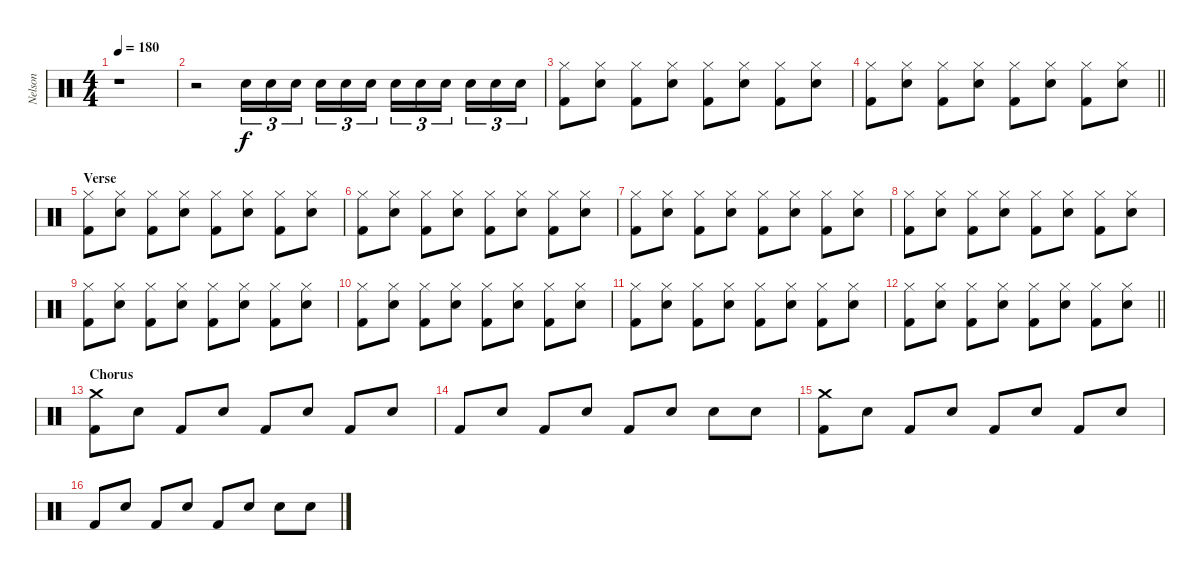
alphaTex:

\track ("Nelson" "Nelson") {instrument percussion}
\staff {score}
\articulation defaults
\ts (4 4)
\tempo 180
\clef neutral
\ks c
r.1{dy f} |
r.2 "Electric Snare (hit)".16{tu (3 2)} "Electric Snare (hit)".16{tu (3 2)} "Electric Snare (hit)".16{tu (3 2)} "Electric Snare (hit)".16{tu (3 2)} "Electric Snare (hit)".16{tu (3 2)} "Electric Snare (hit)".16{tu (3 2)} "Electric Snare (hit)".16{tu (3 2)} "Electric Snare (hit)".16{tu (3 2)} "Electric Snare (hit)".16{tu (3 2)} "Electric Snare (hit)".16{tu (3 2)} "Electric Snare (hit)".16{tu (3 2)} "Electric Snare (hit)".16{tu (3 2)} |
("Hi-Hat (closed)" "Kick (hit) 2").8 ("Electric Snare (hit)" "Hi-Hat (closed)").8 ("Hi-Hat (closed)" "Kick (hit) 2").8 ("Electric Snare (hit)" "Hi-Hat (closed)").8 ("Hi-Hat (closed)" "Kick (hit) 2").8 ("Electric Snare (hit)" "Hi-Hat (closed)").8 ("Hi-Hat (closed)" "Kick (hit) 2").8 ("Electric Snare (hit)" "Hi-Hat (closed)").8 |
\barLineRight lightlight
("Hi-Hat (closed)" "Kick (hit) 2").8 ("Electric Snare (hit)" "Hi-Hat (closed)").8 ("Hi-Hat (closed)" "Kick (hit) 2").8 ("Electric Snare (hit)" "Hi-Hat (closed)").8 ("Hi-Hat (closed)" "Kick (hit) 2").8 ("Electric Snare (hit)" "Hi-Hat (closed)").8 ("Hi-Hat (closed)" "Kick (hit) 2").8 ("Electric Snare (hit)" "Hi-Hat (closed)").8 |
\section ("" "Verse")
("Hi-Hat (closed)" "Kick (hit) 2").8 ("Electric Snare (hit)" "Hi-Hat (closed)").8 ("Hi-Hat (closed)" "Kick (hit) 2").8 ("Electric Snare (hit)" "Hi-Hat (closed)").8 ("Hi-Hat (closed)" "Kick (hit) 2").8 ("Electric Snare (hit)" "Hi-Hat (closed)").8 ("Hi-Hat (closed)" "Kick (hit) 2").8 ("Electric Snare (hit)" "Hi-Hat (closed)").8 |
("Hi-Hat (closed)" "Kick (hit) 2").8 ("Electric Snare (hit)" "Hi-Hat (closed)").8 ("Hi-Hat (closed)" "Kick (hit) 2").8 ("Electric Snare (hit)" "Hi-Hat (closed)").8 ("Hi-Hat (closed)" "Kick (hit) 2").8 ("Electric Snare (hit)" "Hi-Hat (closed)").8 ("Hi-Hat (closed)" "Kick (hit) 2").8 ("Electric Snare (hit)" "Hi-Hat (closed)").8 |
("Hi-Hat (closed)" "Kick (hit) 2").8 ("Electric Snare (hit)" "Hi-Hat (closed)").8 ("Hi-Hat (closed)" "Kick (hit) 2").8 ("Electric Snare (hit)" "Hi-Hat (closed)").8 ("Hi-Hat (closed)" "Kick (hit) 2").8 ("Electric Snare (hit)" "Hi-Hat (closed)").8 ("Hi-Hat (closed)" "Kick (hit) 2").8 ("Electric Snare (hit)" "Hi-Hat (closed)").8 |
("Hi-Hat (closed)" "Kick (hit) 2").8 ("Electric Snare (hit)" "Hi-Hat (closed)").8 ("Hi-Hat (closed)" "Kick (hit) 2").8 ("Electric Snare (hit)" "Hi-Hat (closed)").8 ("Hi-Hat (closed)" "Kick (hit) 2").8 ("Electric Snare (hit)" "Hi-Hat (closed)").8 ("Hi-Hat (closed)" "Kick (hit) 2").8 ("Electric Snare (hit)" "Hi-Hat (closed)").8 |
("Hi-Hat (closed)" "Kick (hit) 2").8 ("Electric Snare (hit)" "Hi-Hat (closed)").8 ("Hi-Hat (closed)" "Kick (hit) 2").8 ("Electric Snare (hit)" "Hi-Hat (closed)").8 ("Hi-Hat (closed)" "Kick (hit) 2").8 ("Electric Snare (hit)" "Hi-Hat (closed)").8 ("Hi-Hat (closed)" "Kick (hit) 2").8 ("Electric Snare (hit)" "Hi-Hat (closed)").8 |
("Hi-Hat (closed)" "Kick (hit) 2").8 ("Electric Snare (hit)" "Hi-Hat (closed)").8 ("Hi-Hat (closed)" "Kick (hit) 2").8 ("Electric Snare (hit)" "Hi-Hat (closed)").8 ("Hi-Hat (closed)" "Kick (hit) 2").8 ("Electric Snare (hit)" "Hi-Hat (closed)").8 ("Hi-Hat (closed)" "Kick (hit) 2").8 ("Electric Snare (hit)" "Hi-Hat (closed)").8 |
("Hi-Hat (closed)" "Kick (hit) 2").8 ("Electric Snare (hit)" "Hi-Hat (closed)").8 ("Hi-Hat (closed)" "Kick (hit) 2").8 ("Electric Snare (hit)" "Hi-Hat (closed)").8 ("Hi-Hat (closed)" "Kick (hit) 2").8 ("Electric Snare (hit)" "Hi-Hat (closed)").8 ("Hi-Hat (closed)" "Kick (hit) 2").8 ("Electric Snare (hit)" "Hi-Hat (closed)").8 |
\barLineRight lightlight
("Hi-Hat (closed)" "Kick (hit) 2").8 ("Electric Snare (hit)" "Hi-Hat (closed)").8 ("Hi-Hat (closed)" "Kick (hit) 2").8 ("Electric Snare (hit)" "Hi-Hat (closed)").8 ("Hi-Hat (closed)" "Kick (hit) 2").8 ("Electric Snare (hit)" "Hi-Hat (closed)").8 ("Hi-Hat (closed)" "Kick (hit) 2").8 ("Electric Snare (hit)" "Hi-Hat (closed)").8 |
\section ("" "Chorus")
("Crash medium (hit)" "Kick (hit) 2").8 "Electric Snare (hit)".8 "Kick (hit) 2".8 "Electric Snare (hit)".8 "Kick (hit) 2".8 "Electric Snare (hit)".8 "Kick (hit) 2".8 "Electric Snare (hit)".8 |
"Kick (hit) 2".8 "Electric Snare (hit)".8 "Kick (hit) 2".8 "Electric Snare (hit)".8 "Kick (hit) 2".8 "Electric Snare (hit)".8 "Electric Snare (hit)".8 "Electric Snare (hit)".8 |
("Crash medium (hit)" "Kick (hit) 2").8 "Electric Snare (hit)".8 "Kick (hit) 2".8 "Electric Snare (hit)".8 "Kick (hit) 2".8 "Electric Snare (hit)".8 "Kick (hit) 2".8 "Electric Snare (hit)".8 |
"Kick (hit) 2".8 "Electric Snare (hit)".8 "Kick (hit) 2".8 "Electric Snare (hit)".8 "Kick (hit) 2".8 "Electric Snare (hit)".8 "Electric Snare (hit)".8 "Electric Snare (hit)".8
